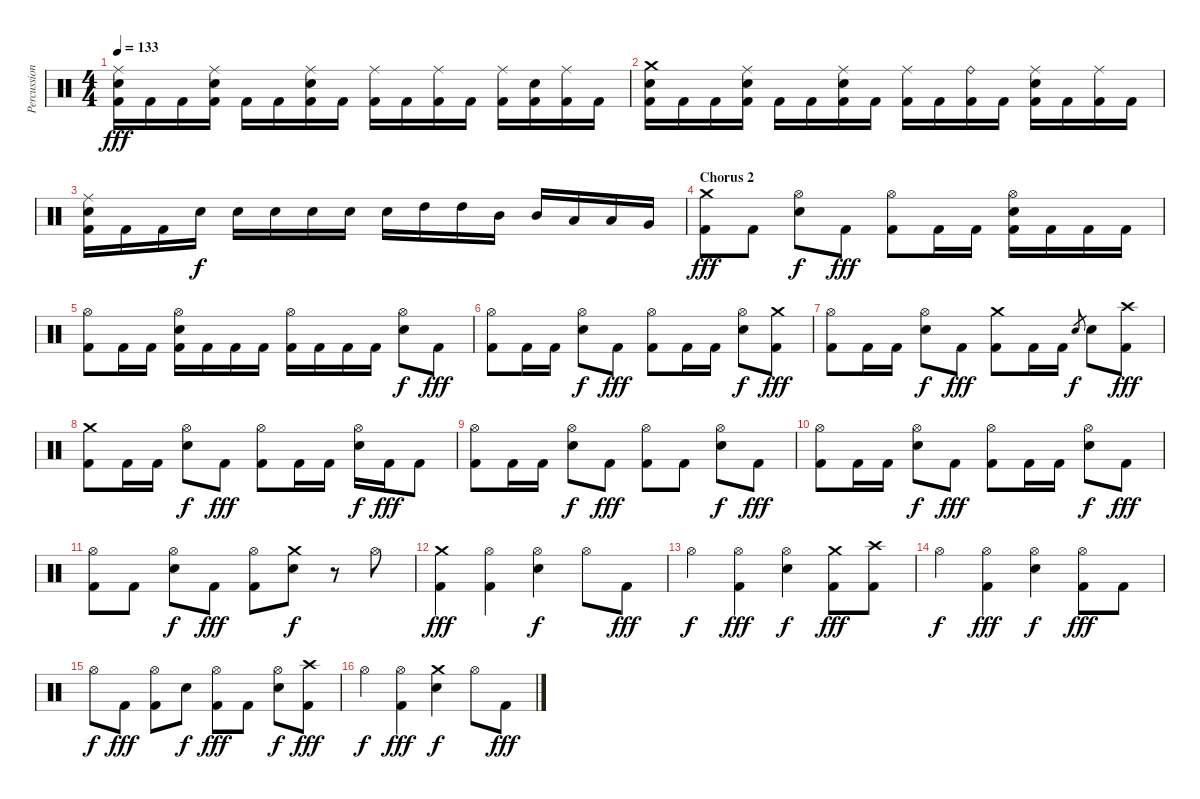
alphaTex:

\track ("Percussion" "Percussion") {instrument percussion}
\staff {score}
\articulation defaults
\ts (4 4)
\tempo 133
\clef neutral
\ks c
("Ride (middle)" "Electric Snare (hit)" "Kick (hit) 2").16{dy fff} "Kick (hit) 2".16 "Kick (hit) 2".16 ("Ride (middle)" "Electric Snare (hit)" "Kick (hit) 2").16 "Kick (hit) 2".16 "Kick (hit) 2".16 ("Ride (middle)" "Electric Snare (hit)" "Kick (hit) 2").16 "Kick (hit) 2".16 ("Ride (middle)" "Kick (hit) 2").16 "Kick (hit) 2".16 ("Ride (middle)" "Kick (hit) 2").16 "Kick (hit) 2".16 ("Ride (middle)" "Kick (hit) 2").16 ("Electric Snare (hit)" "Kick (hit) 2").16 ("Ride (middle)" "Kick (hit) 2").16 "Kick (hit) 2".16 |
("Crash medium (hit)" "Electric Snare (hit)" "Kick (hit) 2").16 "Kick (hit) 2".16 "Kick (hit) 2".16 ("Ride (middle)" "Electric Snare (hit)" "Kick (hit) 2").16 "Kick (hit) 2".16 "Kick (hit) 2".16 ("Ride (middle)" "Electric Snare (hit)" "Kick (hit) 2").16 "Kick (hit) 2".16 ("Ride (middle)" "Kick (hit) 2").16 "Kick (hit) 2".16 ("Ride (bell)" "Kick (hit) 2").16 "Kick (hit) 2".16 ("Ride (middle)" "Electric Snare (hit)" "Kick (hit) 2").16 "Kick (hit) 2".16 ("Ride (middle)" "Kick (hit) 2").16 "Kick (hit) 2".16 |
("Ride (middle)" "Electric Snare (hit)" "Kick (hit) 2").16 "Kick (hit) 2".16 "Kick (hit) 2".16 "Electric Snare (hit)".16{dy f} "Electric Snare (hit)".16 "Electric Snare (hit)".16 "Electric Snare (hit)".16 "Electric Snare (hit)".16 "Electric Snare (hit)".16 "High Tom (hit)".16 "High Tom (hit)".16 "Mid Tom (hit)".16 "Mid Tom (hit)".16 "Low Tom (hit)".16 "Low Tom (hit)".16 "Very Low Tom (hit)".16 |
\section ("" "Chorus 2")
("Crash medium (hit)" "Kick (hit) 2").8{dy fff} "Kick (hit) 2".8 ("Hi-Hat (open)" "Electric Snare (hit)").8{dy f} "Kick (hit) 2".8{dy fff} ("Hi-Hat (open)" "Kick (hit) 2").8 "Kick (hit) 2".16 "Kick (hit) 2".16 ("Hi-Hat (open)" "Electric Snare (hit)" "Kick (hit) 2").16 "Kick (hit) 2".16 "Kick (hit) 2".16 "Kick (hit) 2".16 |
("Hi-Hat (open)" "Kick (hit) 2").8 "Kick (hit) 2".16 "Kick (hit) 2".16 ("Hi-Hat (open)" "Electric Snare (hit)" "Kick (hit) 2").16 "Kick (hit) 2".16 "Kick (hit) 2".16 "Kick (hit) 2".16 ("Hi-Hat (open)" "Kick (hit) 2").16 "Kick (hit) 2".16 "Kick (hit) 2".16 "Kick (hit) 2".16 ("Hi-Hat (open)" "Electric Snare (hit)").8{dy f} "Kick (hit) 2".8{dy fff} |
("Hi-Hat (open)" "Kick (hit) 2").8 "Kick (hit) 2".16 "Kick (hit) 2".16 ("Hi-Hat (open)" "Electric Snare (hit)").8{dy f} "Kick (hit) 2".8{dy fff} ("Hi-Hat (open)" "Kick (hit) 2").8 "Kick (hit) 2".16 "Kick (hit) 2".16 ("Hi-Hat (open)" "Electric Snare (hit)").8{dy f} ("Crash medium (hit)" "Kick (hit) 2").8{dy fff} |
("Hi-Hat (open)" "Kick (hit) 2").8 "Kick (hit) 2".16 "Kick (hit) 2".16 ("Hi-Hat (open)" "Electric Snare (hit)").8{dy f} "Kick (hit) 2".8{dy fff} ("Crash medium (hit)" "Kick (hit) 2").8 "Kick (hit) 2".16 "Kick (hit) 2".16 "Electric Snare (hit)".8{gr dy f} "Electric Snare (hit)".8 ("Crash high (hit)" "Kick (hit) 2").8{dy fff} |
("Crash medium (hit)" "Kick (hit) 2").8 "Kick (hit) 2".16 "Kick (hit) 2".16 ("Hi-Hat (open)" "Electric Snare (hit)").8{dy f} "Kick (hit) 2".8{dy fff} ("Hi-Hat (open)" "Kick (hit) 2").8 "Kick (hit) 2".16 "Kick (hit) 2".16 ("Hi-Hat (open)" "Electric Snare (hit)").16{dy f} "Kick (hit) 2".16{dy fff} "Kick (hit) 2".8 |
("Hi-Hat (open)" "Kick (hit) 2").8 "Kick (hit) 2".16 "Kick (hit) 2".16 ("Hi-Hat (open)" "Electric Snare (hit)").8{dy f} "Kick (hit) 2".8{dy fff} ("Hi-Hat (open)" "Kick (hit) 2").8 "Kick (hit) 2".8 ("Hi-Hat (open)" "Electric Snare (hit)").8{dy f} "Kick (hit) 2".8{dy fff} |
("Hi-Hat (open)" "Kick (hit) 2").8 "Kick (hit) 2".16 "Kick (hit) 2".16 ("Hi-Hat (open)" "Electric Snare (hit)").8{dy f} "Kick (hit) 2".8{dy fff} ("Hi-Hat (open)" "Kick (hit) 2").8 "Kick (hit) 2".16 "Kick (hit) 2".16 ("Hi-Hat (open)" "Electric Snare (hit)").8{dy f} "Kick (hit) 2".8{dy fff} |
("Hi-Hat (open)" "Kick (hit) 2").8 "Kick (hit) 2".8 ("Hi-Hat (open)" "Electric Snare (hit)").8{dy f} "Kick (hit) 2".8{dy fff} ("Hi-Hat (open)" "Kick (hit) 2").8 ("Crash medium (hit)" "Electric Snare (hit)").8{dy f} r.8 "Hi-Hat (open)".8 |
("Crash medium (hit)" "Kick (hit) 2").4{dy fff} ("Hi-Hat (open)" "Kick (hit) 2").4 ("Hi-Hat (open)" "Electric Snare (hit)").4{dy f} "Hi-Hat (open)".8 "Kick (hit) 2".8{dy fff} |
"Hi-Hat (open)".4{dy f} ("Hi-Hat (open)" "Kick (hit) 2").4{dy fff} ("Hi-Hat (open)" "Electric Snare (hit)").4{dy f} ("Crash medium (hit)" "Kick (hit) 2").8{dy fff} ("Crash high (hit)" "Kick (hit) 2").8 |
"Hi-Hat (open)".4{dy f} ("Hi-Hat (open)" "Kick (hit) 2").4{dy fff} ("Hi-Hat (open)" "Electric Snare (hit)").4{dy f} ("Hi-Hat (open)" "Kick (hit) 2").8{dy fff} "Kick (hit) 2".8 |
"Hi-Hat (open)".8{dy f} "Kick (hit) 2".8{dy fff} ("Hi-Hat (open)" "Kick (hit) 2").8 "Electric Snare (hit)".8{dy f} ("Hi-Hat (open)" "Kick (hit) 2").8{dy fff} "Kick (hit) 2".8 ("Hi-Hat (open)" "Electric Snare (hit)").8{dy f} ("Crash high (hit)" "Kick (hit) 2").8{dy fff} |
"Hi-Hat (open)".4{dy f} ("Hi-Hat (open)" "Kick (hit) 2").4{dy fff} ("Crash medium (hit)" "Electric Snare (hit)").4{dy f} "Hi-Hat (open)".8 "Kick (hit) 2".8{dy fff}
